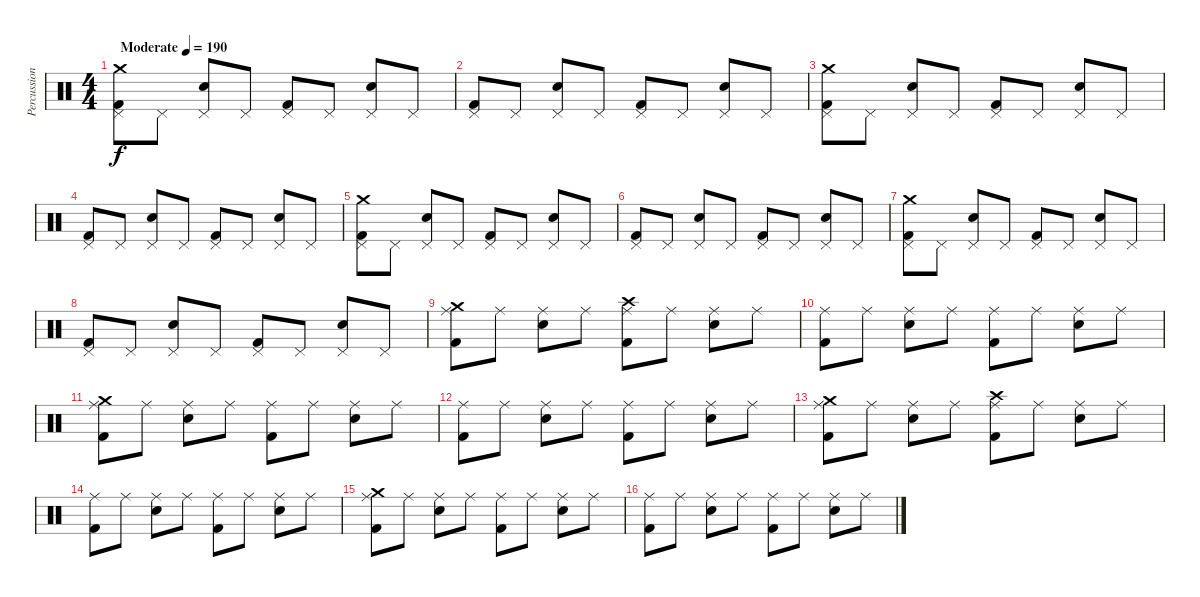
\track ("Percussion" "Percussion") {instrument percussion}
\staff {score}
\articulation defaults
\ts (4 4)
\tempo (190 "Moderate")
\clef neutral
\ks c
("Pedal Hi-Hat (hit)" "Kick (hit) 2" "Crash medium (hit)").8{dy f} "Pedal Hi-Hat (hit)".8 ("Pedal Hi-Hat (hit)" "Snare (hit) 2").8 "Pedal Hi-Hat (hit)".8 ("Pedal Hi-Hat (hit)" "Kick (hit) 2").8 "Pedal Hi-Hat (hit)".8 ("Pedal Hi-Hat (hit)" "Snare (hit) 2").8 "Pedal Hi-Hat (hit)".8 |
("Pedal Hi-Hat (hit)" "Kick (hit) 2").8 "Pedal Hi-Hat (hit)".8 ("Pedal Hi-Hat (hit)" "Snare (hit) 2").8 "Pedal Hi-Hat (hit)".8 ("Pedal Hi-Hat (hit)" "Kick (hit) 2").8 "Pedal Hi-Hat (hit)".8 ("Pedal Hi-Hat (hit)" "Snare (hit) 2").8 "Pedal Hi-Hat (hit)".8 |
("Pedal Hi-Hat (hit)" "Kick (hit) 2" "Crash medium (hit)").8 "Pedal Hi-Hat (hit)".8 ("Pedal Hi-Hat (hit)" "Snare (hit) 2").8 "Pedal Hi-Hat (hit)".8 ("Pedal Hi-Hat (hit)" "Kick (hit) 2").8 "Pedal Hi-Hat (hit)".8 ("Pedal Hi-Hat (hit)" "Snare (hit) 2").8 "Pedal Hi-Hat (hit)".8 |
("Pedal Hi-Hat (hit)" "Kick (hit) 2").8 "Pedal Hi-Hat (hit)".8 ("Pedal Hi-Hat (hit)" "Snare (hit) 2").8 "Pedal Hi-Hat (hit)".8 ("Pedal Hi-Hat (hit)" "Kick (hit) 2").8 "Pedal Hi-Hat (hit)".8 ("Pedal Hi-Hat (hit)" "Snare (hit) 2").8 "Pedal Hi-Hat (hit)".8 |
("Pedal Hi-Hat (hit)" "Kick (hit) 2" "Crash medium (hit)").8 "Pedal Hi-Hat (hit)".8 ("Pedal Hi-Hat (hit)" "Snare (hit) 2").8 "Pedal Hi-Hat (hit)".8 ("Pedal Hi-Hat (hit)" "Kick (hit) 2").8 "Pedal Hi-Hat (hit)".8 ("Pedal Hi-Hat (hit)" "Snare (hit) 2").8 "Pedal Hi-Hat (hit)".8 |
("Pedal Hi-Hat (hit)" "Kick (hit) 2").8 "Pedal Hi-Hat (hit)".8 ("Pedal Hi-Hat (hit)" "Snare (hit) 2").8 "Pedal Hi-Hat (hit)".8 ("Pedal Hi-Hat (hit)" "Kick (hit) 2").8 "Pedal Hi-Hat (hit)".8 ("Pedal Hi-Hat (hit)" "Snare (hit) 2").8 "Pedal Hi-Hat (hit)".8 |
("Pedal Hi-Hat (hit)" "Kick (hit) 2" "Crash medium (hit)").8 "Pedal Hi-Hat (hit)".8 ("Pedal Hi-Hat (hit)" "Snare (hit) 2").8 "Pedal Hi-Hat (hit)".8 ("Pedal Hi-Hat (hit)" "Kick (hit) 2").8 "Pedal Hi-Hat (hit)".8 ("Pedal Hi-Hat (hit)" "Snare (hit) 2").8 "Pedal Hi-Hat (hit)".8 |
("Pedal Hi-Hat (hit)" "Kick (hit) 2").8 "Pedal Hi-Hat (hit)".8 ("Pedal Hi-Hat (hit)" "Snare (hit) 2").8 "Pedal Hi-Hat (hit)".8 ("Pedal Hi-Hat (hit)" "Kick (hit) 2").8 "Pedal Hi-Hat (hit)".8 ("Pedal Hi-Hat (hit)" "Snare (hit) 2").8 "Pedal Hi-Hat (hit)".8 |
("Ride (middle)" "Kick (hit) 2" "Crash medium (hit)").8 "Ride (middle)".8 ("Ride (middle)" "Snare (hit) 2").8 "Ride (middle)".8 ("Ride (middle)" "Kick (hit) 2" "Crash high (hit)").8 "Ride (middle)".8 ("Ride (middle)" "Snare (hit) 2").8 "Ride (middle)".8 |
("Ride (middle)" "Kick (hit) 2").8 "Ride (middle)".8 ("Ride (middle)" "Snare (hit) 2").8 "Ride (middle)".8 ("Ride (middle)" "Kick (hit) 2").8 "Ride (middle)".8 ("Ride (middle)" "Snare (hit) 2").8 "Ride (middle)".8 |
("Ride (middle)" "Kick (hit) 2" "Crash medium (hit)").8 "Ride (middle)".8 ("Ride (middle)" "Snare (hit) 2").8 "Ride (middle)".8 ("Ride (middle)" "Kick (hit) 2").8 "Ride (middle)".8 ("Ride (middle)" "Snare (hit) 2").8 "Ride (middle)".8 |
("Ride (middle)" "Kick (hit) 2").8 "Ride (middle)".8 ("Ride (middle)" "Snare (hit) 2").8 "Ride (middle)".8 ("Ride (middle)" "Kick (hit) 2").8 "Ride (middle)".8 ("Ride (middle)" "Snare (hit) 2").8 "Ride (middle)".8 |
("Ride (middle)" "Kick (hit) 2" "Crash medium (hit)").8 "Ride (middle)".8 ("Ride (middle)" "Snare (hit) 2").8 "Ride (middle)".8 ("Ride (middle)" "Kick (hit) 2" "Crash high (hit)").8 "Ride (middle)".8 ("Ride (middle)" "Snare (hit) 2").8 "Ride (middle)".8 |
("Ride (middle)" "Kick (hit) 2").8 "Ride (middle)".8 ("Ride (middle)" "Snare (hit) 2").8 "Ride (middle)".8 ("Ride (middle)" "Kick (hit) 2").8 "Ride (middle)".8 ("Ride (middle)" "Snare (hit) 2").8 "Ride (middle)".8 |
("Ride (middle)" "Kick (hit) 2" "Crash medium (hit)").8 "Ride (middle)".8 ("Ride (middle)" "Snare (hit) 2").8 "Ride (middle)".8 ("Ride (middle)" "Kick (hit) 2").8 "Ride (middle)".8 ("Ride (middle)" "Snare (hit) 2").8 "Ride (middle)".8 |
("Ride (middle)" "Kick (hit) 2").8 "Ride (middle)".8 ("Ride (middle)" "Snare (hit) 2").8 "Ride (middle)".8 ("Ride (middle)" "Kick (hit) 2").8 "Ride (middle)".8 ("Ride (middle)" "Snare (hit) 2").8 "Ride (middle)".8
